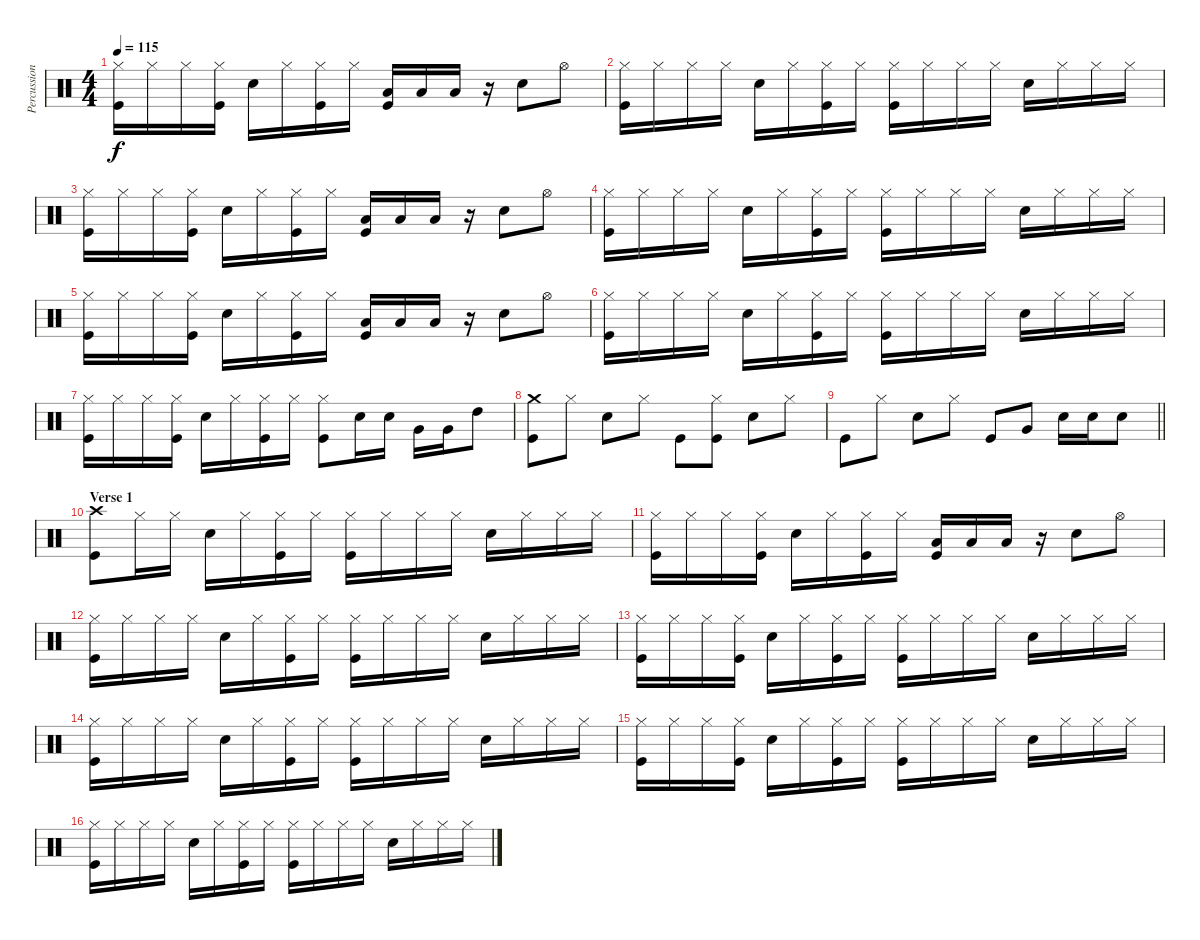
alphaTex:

\track ("Percussion" "Percussion") {instrument percussion}
\staff {score}
\articulation defaults
\ts (4 4)
\tempo 115
\clef neutral
\ks c
("Kick (hit)" "Hi-Hat (closed)").16{dy f} "Hi-Hat (closed)".16 "Hi-Hat (closed)".16 ("Kick (hit)" "Hi-Hat (closed)").16 "Snare (hit) 2".16 "Hi-Hat (closed)".16 ("Kick (hit)" "Hi-Hat (closed)").16 "Hi-Hat (closed)".16 ("Low Floor Tom (hit)" "Kick (hit)").16 "Low Floor Tom (hit)".16 "Low Floor Tom (hit)".16 r.16 "Snare (hit) 2".8 "Hi-Hat (open)".8 |
("Kick (hit)" "Hi-Hat (closed)").16 "Hi-Hat (closed)".16 "Hi-Hat (closed)".16 "Hi-Hat (closed)".16 "Snare (hit) 2".16 "Hi-Hat (closed)".16 ("Kick (hit)" "Hi-Hat (closed)").16 "Hi-Hat (closed)".16 ("Kick (hit)" "Hi-Hat (closed)").16 "Hi-Hat (closed)".16 "Hi-Hat (closed)".16 "Hi-Hat (closed)".16 "Snare (hit) 2".16 "Hi-Hat (closed)".16 "Hi-Hat (closed)".16 "Hi-Hat (closed)".16 |
("Kick (hit)" "Hi-Hat (closed)").16 "Hi-Hat (closed)".16 "Hi-Hat (closed)".16 ("Kick (hit)" "Hi-Hat (closed)").16 "Snare (hit) 2".16 "Hi-Hat (closed)".16 ("Kick (hit)" "Hi-Hat (closed)").16 "Hi-Hat (closed)".16 ("Low Floor Tom (hit)" "Kick (hit)").16 "Low Floor Tom (hit)".16 "Low Floor Tom (hit)".16 r.16 "Snare (hit) 2".8 "Hi-Hat (open)".8 |
("Kick (hit)" "Hi-Hat (closed)").16 "Hi-Hat (closed)".16 "Hi-Hat (closed)".16 "Hi-Hat (closed)".16 "Snare (hit) 2".16 "Hi-Hat (closed)".16 ("Kick (hit)" "Hi-Hat (closed)").16 "Hi-Hat (closed)".16 ("Kick (hit)" "Hi-Hat (closed)").16 "Hi-Hat (closed)".16 "Hi-Hat (closed)".16 "Hi-Hat (closed)".16 "Snare (hit) 2".16 "Hi-Hat (closed)".16 "Hi-Hat (closed)".16 "Hi-Hat (closed)".16 |
("Kick (hit)" "Hi-Hat (closed)").16 "Hi-Hat (closed)".16 "Hi-Hat (closed)".16 ("Kick (hit)" "Hi-Hat (closed)").16 "Snare (hit) 2".16 "Hi-Hat (closed)".16 ("Kick (hit)" "Hi-Hat (closed)").16 "Hi-Hat (closed)".16 ("Low Floor Tom (hit)" "Kick (hit)").16 "Low Floor Tom (hit)".16 "Low Floor Tom (hit)".16 r.16 "Snare (hit) 2".8 "Hi-Hat (open)".8 |
("Kick (hit)" "Hi-Hat (closed)").16 "Hi-Hat (closed)".16 "Hi-Hat (closed)".16 "Hi-Hat (closed)".16 "Snare (hit) 2".16 "Hi-Hat (closed)".16 ("Kick (hit)" "Hi-Hat (closed)").16 "Hi-Hat (closed)".16 ("Kick (hit)" "Hi-Hat (closed)").16 "Hi-Hat (closed)".16 "Hi-Hat (closed)".16 "Hi-Hat (closed)".16 "Snare (hit) 2".16 "Hi-Hat (closed)".16 "Hi-Hat (closed)".16 "Hi-Hat (closed)".16 |
("Kick (hit)" "Hi-Hat (closed)").16 "Hi-Hat (closed)".16 "Hi-Hat (closed)".16 ("Kick (hit)" "Hi-Hat (closed)").16 "Snare (hit) 2".16 "Hi-Hat (closed)".16 ("Kick (hit)" "Hi-Hat (closed)").16 "Hi-Hat (closed)".16 ("Kick (hit)" "Hi-Hat (closed)").8 "Snare (hit) 2".16 "Snare (hit) 2".16 "Very Low Tom (hit)".16 "Very Low Tom (hit)".16 "High Tom (hit)".8 |
("Crash medium (hit)" "Kick (hit)").8 "Hi-Hat (closed)".8 "Snare (hit) 2".8 "Hi-Hat (closed)".8 "Kick (hit)".8 ("Kick (hit)" "Hi-Hat (closed)").8 "Snare (hit) 2".8 "Hi-Hat (closed)".8 |
\barLineRight lightlight "Kick (hit)".8 "Hi-Hat (closed)".8 "Snare (hit) 2".8 "Hi-Hat (closed)".8 "Kick (hit)".8 "Very Low Tom (hit)".8 "Snare (hit) 2".16 "Snare (hit) 2".16 "Snare (hit) 2".8
|
\section ("" "Verse 1")
("Kick (hit)" "Crash high (hit)").8 "Hi-Hat (closed)".16 "Hi-Hat (closed)".16 "Snare (hit) 2".16 "Hi-Hat (closed)".16 ("Kick (hit)" "Hi-Hat (closed)").16 "Hi-Hat (closed)".16 ("Kick (hit)" "Hi-Hat (closed)").16 "Hi-Hat (closed)".16 "Hi-Hat (closed)".16 "Hi-Hat (closed)".16 "Snare (hit) 2".16 "Hi-Hat (closed)".16 "Hi-Hat (closed)".16 "Hi-Hat (closed)".16 |
("Kick (hit)" "Hi-Hat (closed)").16 "Hi-Hat (closed)".16 "Hi-Hat (closed)".16 ("Kick (hit)" "Hi-Hat (closed)").16 "Snare (hit) 2".16 "Hi-Hat (closed)".16 ("Kick (hit)" "Hi-Hat (closed)").16 "Hi-Hat (closed)".16 ("Low Floor Tom (hit)" "Kick (hit)").16 "Low Floor Tom (hit)".16 "Low Floor Tom (hit)".16 r.16 "Snare (hit) 2".8 "Hi-Hat (open)".8 |
("Kick (hit)" "Hi-Hat (closed)").16 "Hi-Hat (closed)".16 "Hi-Hat (closed)".16 "Hi-Hat (closed)".16 "Snare (hit) 2".16 "Hi-Hat (closed)".16 ("Kick (hit)" "Hi-Hat (closed)").16 "Hi-Hat (closed)".16 ("Kick (hit)" "Hi-Hat (closed)").16 "Hi-Hat (closed)".16 "Hi-Hat (closed)".16 "Hi-Hat (closed)".16 "Snare (hit) 2".16 "Hi-Hat (closed)".16 "Hi-Hat (closed)".16 "Hi-Hat (closed)".16 |
("Kick (hit)" "Hi-Hat (closed)").16 "Hi-Hat (closed)".16 "Hi-Hat (closed)".16 ("Kick (hit)" "Hi-Hat (closed)").16 "Snare (hit) 2".16 "Hi-Hat (closed)".16 ("Kick (hit)" "Hi-Hat (closed)").16 "Hi-Hat (closed)".16 ("Kick (hit)" "Hi-Hat (closed)").16 "Hi-Hat (closed)".16 "Hi-Hat (closed)".16 "Hi-Hat (closed)".16 "Snare (hit) 2".16 "Hi-Hat (closed)".16 "Hi-Hat (closed)".16 "Hi-Hat (closed)".16 |
("Kick (hit)" "Hi-Hat (closed)").16 "Hi-Hat (closed)".16 "Hi-Hat (closed)".16 "Hi-Hat (closed)".16 "Snare (hit) 2".16 "Hi-Hat (closed)".16 ("Kick (hit)" "Hi-Hat (closed)").16 "Hi-Hat (closed)".16 ("Kick (hit)" "Hi-Hat (closed)").16 "Hi-Hat (closed)".16 "Hi-Hat (closed)".16 "Hi-Hat (closed)".16 "Snare (hit) 2".16 "Hi-Hat (closed)".16 "Hi-Hat (closed)".16 "Hi-Hat (closed)".16 |
("Kick (hit)" "Hi-Hat (closed)").16 "Hi-Hat (closed)".16 "Hi-Hat (closed)".16 ("Kick (hit)" "Hi-Hat (closed)").16 "Snare (hit) 2".16 "Hi-Hat (closed)".16 ("Kick (hit)" "Hi-Hat (closed)").16 "Hi-Hat (closed)".16 ("Kick (hit)" "Hi-Hat (closed)").16 "Hi-Hat (closed)".16 "Hi-Hat (closed)".16 "Hi-Hat (closed)".16 "Snare (hit) 2".16 "Hi-Hat (closed)".16 "Hi-Hat (closed)".16 "Hi-Hat (closed)".16 |
("Kick (hit)" "Hi-Hat (closed)").16 "Hi-Hat (closed)".16 "Hi-Hat (closed)".16 "Hi-Hat (closed)".16 "Snare (hit) 2".16 "Hi-Hat (closed)".16 ("Kick (hit)" "Hi-Hat (closed)").16 "Hi-Hat (closed)".16 ("Kick (hit)" "Hi-Hat (closed)").16 "Hi-Hat (closed)".16 "Hi-Hat (closed)".16 "Hi-Hat (closed)".16 "Snare (hit) 2".16 "Hi-Hat (closed)".16 "Hi-Hat (closed)".16 "Hi-Hat (closed)".16
